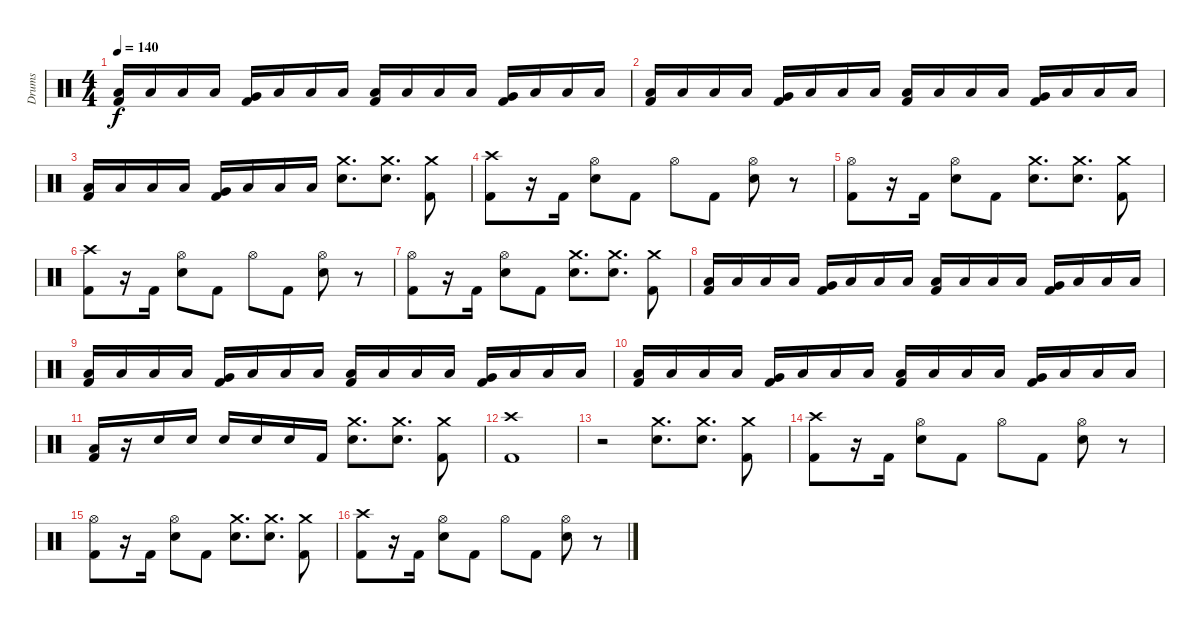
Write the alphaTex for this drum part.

\track ("Drums" "Drums") {instrument percussion}
\staff {score}
\articulation defaults
\ts (4 4)
\tempo 140
\clef neutral
\ks c
("Low Floor Tom (hit)" "Kick (hit) 2").16{dy f} "Low Floor Tom (hit)".16 "Low Floor Tom (hit)".16 "Low Floor Tom (hit)".16 ("Very Low Tom (hit)" "Kick (hit) 2").16 "Low Floor Tom (hit)".16 "Low Floor Tom (hit)".16 "Low Floor Tom (hit)".16 ("Low Floor Tom (hit)" "Kick (hit) 2").16 "Low Floor Tom (hit)".16 "Low Floor Tom (hit)".16 "Low Floor Tom (hit)".16 ("Very Low Tom (hit)" "Kick (hit) 2").16 "Low Floor Tom (hit)".16 "Low Floor Tom (hit)".16 "Low Floor Tom (hit)".16 |
("Low Floor Tom (hit)" "Kick (hit) 2").16 "Low Floor Tom (hit)".16 "Low Floor Tom (hit)".16 "Low Floor Tom (hit)".16 ("Very Low Tom (hit)" "Kick (hit) 2").16 "Low Floor Tom (hit)".16 "Low Floor Tom (hit)".16 "Low Floor Tom (hit)".16 ("Low Floor Tom (hit)" "Kick (hit) 2").16 "Low Floor Tom (hit)".16 "Low Floor Tom (hit)".16 "Low Floor Tom (hit)".16 ("Very Low Tom (hit)" "Kick (hit) 2").16 "Low Floor Tom (hit)".16 "Low Floor Tom (hit)".16 "Low Floor Tom (hit)".16 |
("Low Floor Tom (hit)" "Kick (hit) 2").16 "Low Floor Tom (hit)".16 "Low Floor Tom (hit)".16 "Low Floor Tom (hit)".16 ("Very Low Tom (hit)" "Kick (hit) 2").16 "Low Floor Tom (hit)".16 "Low Floor Tom (hit)".16 "Low Floor Tom (hit)".16 ("Snare (hit) 2" "Crash medium (hit)").8{d} ("Crash medium (hit)" "Snare (hit) 2").8{d} ("Kick (hit) 2" "Crash medium (hit)").8 |
("Kick (hit) 2" "Crash high (hit)").8 r.16 "Kick (hit) 2".16 ("Hi-Hat (open)" "Snare (hit) 2").8 "Kick (hit) 2".8 "Hi-Hat (open)".8 "Kick (hit) 2".8 ("Hi-Hat (open)" "Snare (hit) 2").8 r.8 |
("Kick (hit) 2" "Hi-Hat (open)").8 r.16 "Kick (hit) 2".16 ("Hi-Hat (open)" "Snare (hit) 2").8 "Kick (hit) 2".8 ("Snare (hit) 2" "Crash medium (hit)").8{d} ("Crash medium (hit)" "Snare (hit) 2").8{d} ("Kick (hit) 2" "Crash medium (hit)").8 |
("Kick (hit) 2" "Crash high (hit)").8 r.16 "Kick (hit) 2".16 ("Hi-Hat (open)" "Snare (hit) 2").8 "Kick (hit) 2".8 "Hi-Hat (open)".8 "Kick (hit) 2".8 ("Hi-Hat (open)" "Snare (hit) 2").8 r.8 |
("Kick (hit) 2" "Hi-Hat (open)").8 r.16 "Kick (hit) 2".16 ("Hi-Hat (open)" "Snare (hit) 2").8 "Kick (hit) 2".8 ("Snare (hit) 2" "Crash medium (hit)").8{d} ("Crash medium (hit)" "Snare (hit) 2").8{d} ("Kick (hit) 2" "Crash medium (hit)").8 |
("Low Floor Tom (hit)" "Kick (hit) 2").16 "Low Floor Tom (hit)".16 "Low Floor Tom (hit)".16 "Low Floor Tom (hit)".16 ("Very Low Tom (hit)" "Kick (hit) 2").16 "Low Floor Tom (hit)".16 "Low Floor Tom (hit)".16 "Low Floor Tom (hit)".16 ("Low Floor Tom (hit)" "Kick (hit) 2").16 "Low Floor Tom (hit)".16 "Low Floor Tom (hit)".16 "Low Floor Tom (hit)".16 ("Very Low Tom (hit)" "Kick (hit) 2").16 "Low Floor Tom (hit)".16 "Low Floor Tom (hit)".16 "Low Floor Tom (hit)".16 |
("Low Floor Tom (hit)" "Kick (hit) 2").16 "Low Floor Tom (hit)".16 "Low Floor Tom (hit)".16 "Low Floor Tom (hit)".16 ("Very Low Tom (hit)" "Kick (hit) 2").16 "Low Floor Tom (hit)".16 "Low Floor Tom (hit)".16 "Low Floor Tom (hit)".16 ("Low Floor Tom (hit)" "Kick (hit) 2").16 "Low Floor Tom (hit)".16 "Low Floor Tom (hit)".16 "Low Floor Tom (hit)".16 ("Very Low Tom (hit)" "Kick (hit) 2").16 "Low Floor Tom (hit)".16 "Low Floor Tom (hit)".16 "Low Floor Tom (hit)".16 |
("Low Floor Tom (hit)" "Kick (hit) 2").16 "Low Floor Tom (hit)".16 "Low Floor Tom (hit)".16 "Low Floor Tom (hit)".16 ("Very Low Tom (hit)" "Kick (hit) 2").16 "Low Floor Tom (hit)".16 "Low Floor Tom (hit)".16 "Low Floor Tom (hit)".16 ("Low Floor Tom (hit)" "Kick (hit) 2").16 "Low Floor Tom (hit)".16 "Low Floor Tom (hit)".16 "Low Floor Tom (hit)".16 ("Very Low Tom (hit)" "Kick (hit) 2").16 "Low Floor Tom (hit)".16 "Low Floor Tom (hit)".16 "Low Floor Tom (hit)".16 |
("Low Floor Tom (hit)" "Kick (hit) 2").16 r.16 "Snare (hit) 2".16 "Snare (hit) 2".16 "Snare (hit) 2".16 "Snare (hit) 2".16 "Snare (hit) 2".16 "Kick (hit) 2".16 ("Snare (hit) 2" "Crash medium (hit)").8{d} ("Crash medium (hit)" "Snare (hit) 2").8{d} ("Kick (hit) 2" "Crash medium (hit)").8 |
("Kick (hit) 2" "Crash high (hit)").1 |
r.2 ("Snare (hit) 2" "Crash medium (hit)").8{d} ("Crash medium (hit)" "Snare (hit) 2").8{d} ("Kick (hit) 2" "Crash medium (hit)").8 |
("Kick (hit) 2" "Crash high (hit)").8 r.16 "Kick (hit) 2".16 ("Hi-Hat (open)" "Snare (hit) 2").8 "Kick (hit) 2".8 "Hi-Hat (open)".8 "Kick (hit) 2".8 ("Hi-Hat (open)" "Snare (hit) 2").8 r.8 |
("Kick (hit) 2" "Hi-Hat (open)").8 r.16 "Kick (hit) 2".16 ("Hi-Hat (open)" "Snare (hit) 2").8 "Kick (hit) 2".8 ("Snare (hit) 2" "Crash medium (hit)").8{d} ("Crash medium (hit)" "Snare (hit) 2").8{d} ("Kick (hit) 2" "Crash medium (hit)").8 |
("Kick (hit) 2" "Crash high (hit)").8 r.16 "Kick (hit) 2".16 ("Hi-Hat (open)" "Snare (hit) 2").8 "Kick (hit) 2".8 "Hi-Hat (open)".8 "Kick (hit) 2".8 ("Hi-Hat (open)" "Snare (hit) 2").8 r.8
